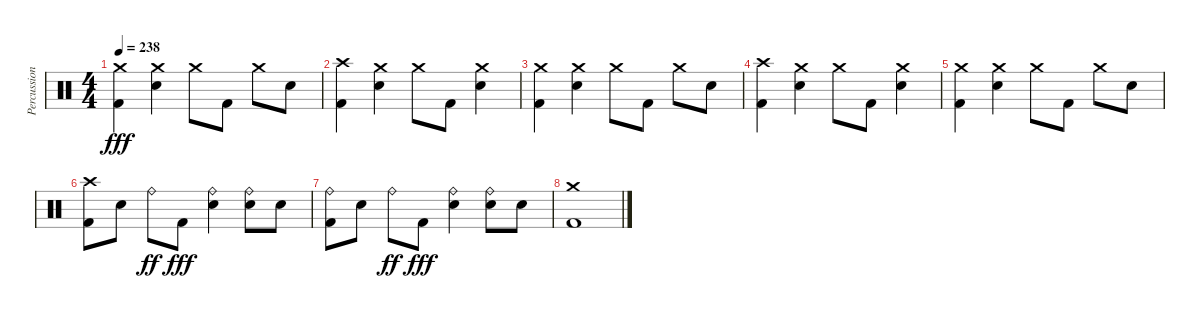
\track ("Percussion" "Percussion") {instrument percussion}
\staff {score}
\articulation defaults
\ts (4 4)
\tempo 238
\clef neutral
\ks c
("Crash medium (hit)" "Kick (hit) 2").4{dy fff} ("Crash medium (hit)" "Electric Snare (hit)").4 "Crash medium (hit)".8 "Kick (hit) 2".8 "Crash medium (hit)".8 "Electric Snare (hit)".8 |
("Crash high (hit)" "Kick (hit) 2").4 ("Crash medium (hit)" "Electric Snare (hit)").4 "Crash medium (hit)".8 "Kick (hit) 2".8 ("Crash medium (hit)" "Electric Snare (hit)").4 |
("Crash medium (hit)" "Kick (hit) 2").4 ("Crash medium (hit)" "Electric Snare (hit)").4 "Crash medium (hit)".8 "Kick (hit) 2".8 "Crash medium (hit)".8 "Electric Snare (hit)".8 |
("Crash high (hit)" "Kick (hit) 2").4 ("Crash medium (hit)" "Electric Snare (hit)").4 "Crash medium (hit)".8 "Kick (hit) 2".8 ("Crash medium (hit)" "Electric Snare (hit)").4 |
("Crash medium (hit)" "Kick (hit) 2").4 ("Crash medium (hit)" "Electric Snare (hit)").4 "Crash medium (hit)".8 "Kick (hit) 2".8 "Crash medium (hit)".8 "Electric Snare (hit)".8 |
("Crash high (hit)" "Kick (hit) 2").8 "Electric Snare (hit)".8 "Ride (bell)".8{dy ff} "Kick (hit) 2".8{dy fff} ("Ride (bell)" "Electric Snare (hit)").4 ("Ride (bell)" "Electric Snare (hit)").8 "Electric Snare (hit)".8 |
("Ride (bell)" "Kick (hit) 2").8 "Electric Snare (hit)".8 "Ride (bell)".8{dy ff} "Kick (hit) 2".8{dy fff} ("Ride (bell)" "Electric Snare (hit)").4 ("Ride (bell)" "Electric Snare (hit)").8 "Electric Snare (hit)".8 |
("Crash medium (hit)" "Kick (hit) 2").1
